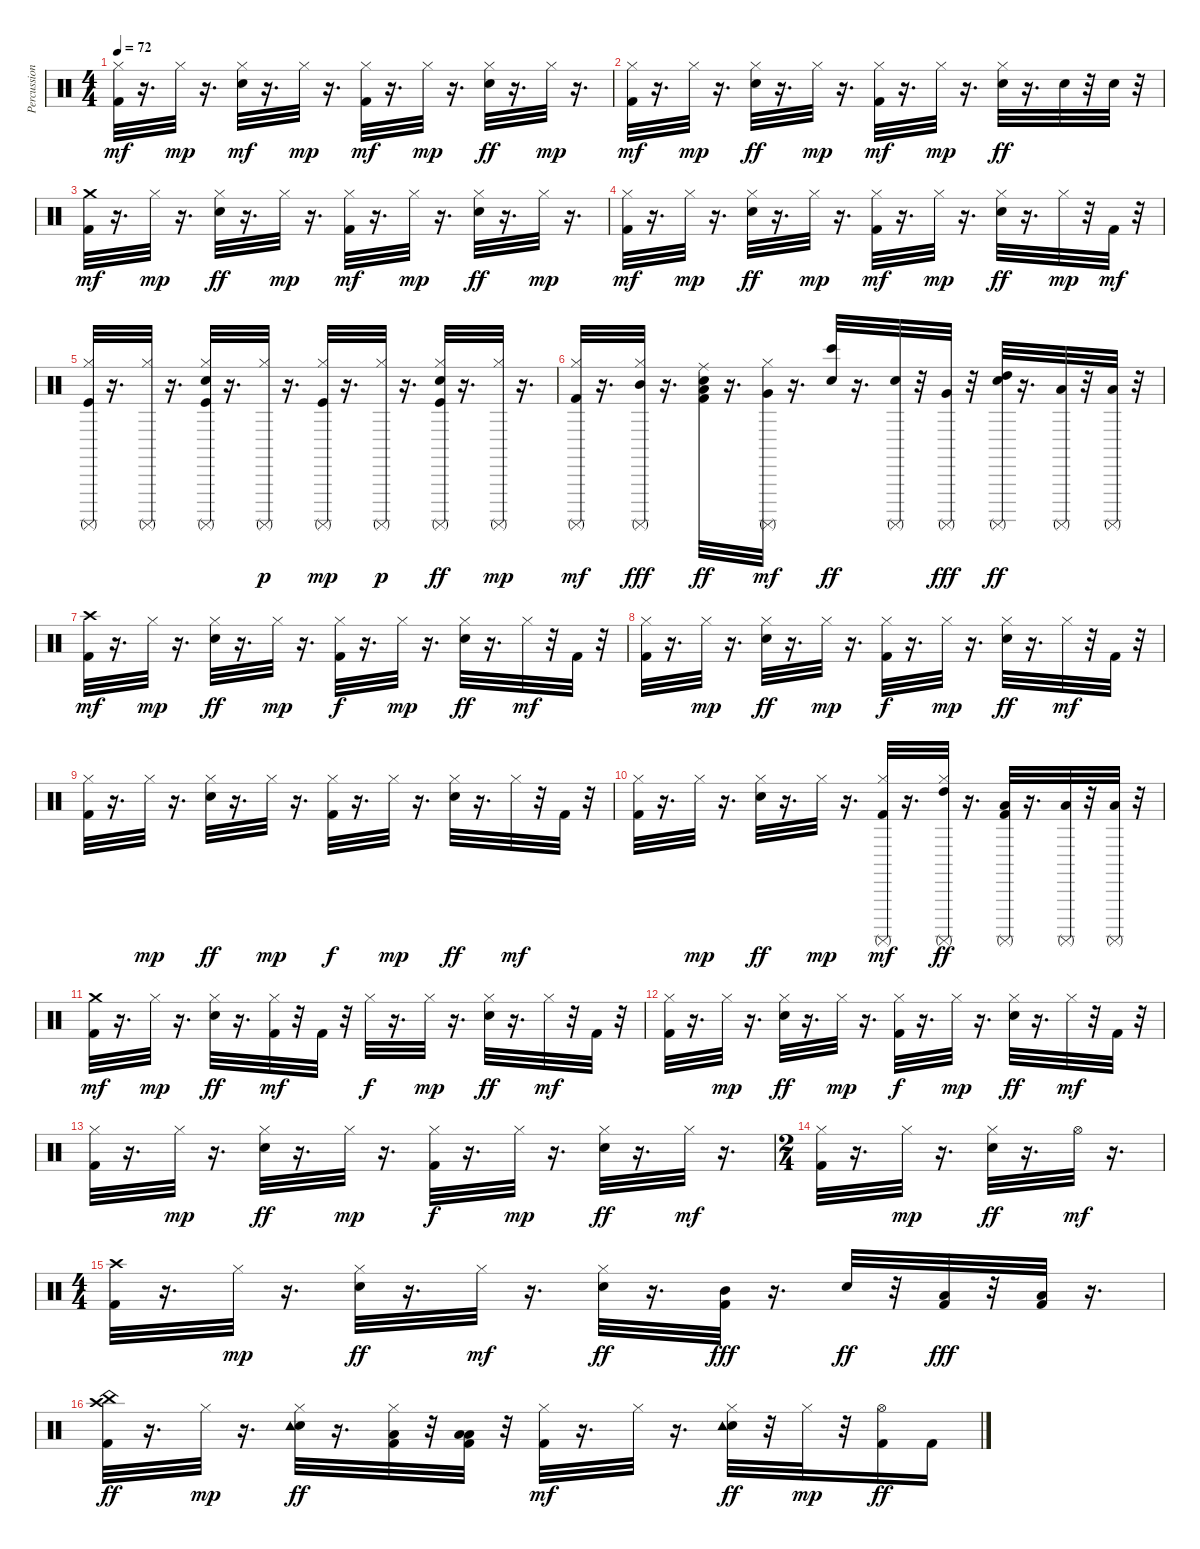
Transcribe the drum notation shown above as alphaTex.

\track ("Percussion" "Percussion") {instrument percussion}
\staff {score}
\articulation defaults
\ts (4 4)
\tempo 72
\clef neutral
\ks c
("Hi-Hat (closed)" "Kick (hit) 2").32{dy mf} r.16{d} "Hi-Hat (closed)".32{dy mp} r.16{d} ("Snare (hit) 2" "Hi-Hat (closed)").32{dy mf} r.16{d} "Hi-Hat (closed)".32{dy mp} r.16{d} ("Hi-Hat (closed)" "Kick (hit) 2").32{dy mf} r.16{d} "Hi-Hat (closed)".32{dy mp} r.16{d} ("Hi-Hat (closed)" "Snare (hit) 2").32{dy ff} r.16{d} "Hi-Hat (closed)".32{dy mp} r.16{d} |
("Kick (hit) 2" "Hi-Hat (closed)").32{dy mf} r.16{d} "Hi-Hat (closed)".32{dy mp} r.16{d} ("Hi-Hat (closed)" "Snare (hit) 2").32{dy ff} r.16{d} "Hi-Hat (closed)".32{dy mp} r.16{d} ("Hi-Hat (closed)" "Kick (hit) 2").32{dy mf} r.16{d} "Hi-Hat (closed)".32{dy mp} r.16{d} ("Hi-Hat (closed)" "Snare (hit) 2").32{dy ff} r.16{d} "Snare (hit) 2".32 r.32 "Snare (hit) 2".32 r.32 |
("Kick (hit) 2" "Crash medium (hit)").32{dy mf} r.16{d} "Hi-Hat (closed)".32{dy mp} r.16{d} ("Snare (hit) 2" "Hi-Hat (closed)").32{dy ff} r.16{d} "Hi-Hat (closed)".32{dy mp} r.16{d} ("Hi-Hat (closed)" "Kick (hit) 2").32{dy mf} r.16{d} "Hi-Hat (closed)".32{dy mp} r.16{d} ("Snare (hit) 2" "Hi-Hat (closed)").32{dy ff} r.16{d} "Hi-Hat (closed)".32{dy mp} r.16{d} |
("Kick (hit) 2" "Hi-Hat (closed)").32{dy mf} r.16{d} "Hi-Hat (closed)".32{dy mp} r.16{d} ("Snare (hit) 2" "Hi-Hat (closed)").32{dy ff} r.16{d} "Hi-Hat (closed)".32{dy mp} r.16{d} ("Hi-Hat (closed)" "Kick (hit) 2").32{dy mf} r.16{d} "Hi-Hat (closed)".32{dy mp} r.16{d} ("Snare (hit) 2" "Hi-Hat (closed)").32{dy ff} r.16{d} "Hi-Hat (closed)".32{dy mp} r.32 "Kick (hit) 2".32{dy mf} r.32 |
("Hi-Hat (closed)" "Kick (hit)" "Surdo (mute)").32 r.16{d} ("Hi-Hat (closed)" "Surdo (mute)").32 r.16{d} ("Hi-Hat (closed)" "Kick (hit)" "Snare (hit) 2" "Surdo (mute)").32 r.16{d} ("Hi-Hat (closed)" "Surdo (mute)").32{dy p} r.16{d} ("Hi-Hat (closed)" "Kick (hit)" "Surdo (mute)").32{dy mp} r.16{d} ("Hi-Hat (closed)" "Surdo (mute)").32{dy p} r.16{d} ("Hi-Hat (closed)" "Kick (hit)" "Snare (hit) 2" "Surdo (mute)").32{dy ff} r.16{d} ("Hi-Hat (closed)" "Surdo (mute)").32{dy mp} r.16{d} |
("Kick (hit) 2" "Hi-Hat (closed)" "Surdo (mute)").32{dy mf} r.16{d} ("Mid Tom (hit)" "Hi-Hat (closed)" "Surdo (mute)").32{dy fff} r.16{d} ("Low Tom (hit)" "Kick (hit) 2" "Snare (hit) 2" "Ride (middle)").32{dy ff} r.16{d} ("Very Low Tom (hit)" "Hi-Hat (closed)" "Surdo (mute)").32{dy mf} r.16{d} ("Snare (hit) 2" "Bongo High (hit)").32{dy ff} r.16{d} ("Snare (hit) 2" "Surdo (mute)").32 r.32 ("Very Low Tom (hit)" "Surdo (mute)").32{dy fff} r.32 ("High Tom (hit)" "Snare (hit) 2" "Surdo (mute)").32{dy ff} r.16{d} ("Low Tom (hit)" "Surdo (mute)").32 r.32 ("Low Floor Tom (hit)" "Surdo (mute)").32 r.32 |
("Kick (hit) 2" "Crash high (hit)").32{dy mf} r.16{d} "Hi-Hat (closed)".32{dy mp} r.16{d} ("Hi-Hat (closed)" "Snare (hit) 2").32{dy ff} r.16{d} "Hi-Hat (closed)".32{dy mp} r.16{d} ("Hi-Hat (closed)" "Kick (hit) 2").32{dy f} r.16{d} "Hi-Hat (closed)".32{dy mp} r.16{d} ("Snare (hit) 2" "Hi-Hat (closed)").32{dy ff} r.16{d} "Hi-Hat (closed)".32{dy mf} r.32 "Kick (hit) 2".32 r.32 |
("Kick (hit) 2" "Hi-Hat (closed)").32 r.16{d} "Hi-Hat (closed)".32{dy mp} r.16{d} ("Hi-Hat (closed)" "Snare (hit) 2").32{dy ff} r.16{d} "Hi-Hat (closed)".32{dy mp} r.16{d} ("Hi-Hat (closed)" "Kick (hit) 2").32{dy f} r.16{d} "Hi-Hat (closed)".32{dy mp} r.16{d} ("Snare (hit) 2" "Hi-Hat (closed)").32{dy ff} r.16{d} "Hi-Hat (closed)".32{dy mf} r.32 "Kick (hit) 2".32 r.32 |
("Kick (hit) 2" "Hi-Hat (closed)").32 r.16{d} "Hi-Hat (closed)".32{dy mp} r.16{d} ("Hi-Hat (closed)" "Snare (hit) 2").32{dy ff} r.16{d} "Hi-Hat (closed)".32{dy mp} r.16{d} ("Hi-Hat (closed)" "Kick (hit) 2").32{dy f} r.16{d} "Hi-Hat (closed)".32{dy mp} r.16{d} ("Snare (hit) 2" "Hi-Hat (closed)").32{dy ff} r.16{d} "Hi-Hat (closed)".32{dy mf} r.32 "Kick (hit) 2".32 r.32 |
("Kick (hit) 2" "Hi-Hat (closed)").32 r.16{d} "Hi-Hat (closed)".32{dy mp} r.16{d} ("Hi-Hat (closed)" "Snare (hit) 2").32{dy ff} r.16{d} "Hi-Hat (closed)".32{dy mp} r.16{d} ("Hi-Hat (closed)" "Kick (hit) 2" "Surdo (mute)").32{dy mf} r.16{d} ("Hi-Hat (closed)" "High Tom (hit)" "Surdo (mute)").32{dy ff} r.16{d} ("Low Tom (hit)" "Kick (hit) 2" "Surdo (mute)").32 r.16{d} ("Low Tom (hit)" "Surdo (mute)").32 r.32 ("Low Tom (hit)" "Surdo (mute)").32 r.32 |
("Kick (hit) 2" "Crash medium (hit)").32{dy mf} r.16{d} "Hi-Hat (closed)".32{dy mp} r.16{d} ("Hi-Hat (closed)" "Snare (hit) 2").32{dy ff} r.16{d} ("Hi-Hat (closed)" "Kick (hit) 2").32{dy mf} r.32 "Kick (hit) 2".32 r.32 "Hi-Hat (closed)".32{dy f} r.16{d} "Hi-Hat (closed)".32{dy mp} r.16{d} ("Snare (hit) 2" "Hi-Hat (closed)").32{dy ff} r.16{d} "Hi-Hat (closed)".32{dy mf} r.32 "Kick (hit) 2".32 r.32 |
("Kick (hit) 2" "Hi-Hat (closed)").32 r.16{d} "Hi-Hat (closed)".32{dy mp} r.16{d} ("Hi-Hat (closed)" "Snare (hit) 2").32{dy ff} r.16{d} "Hi-Hat (closed)".32{dy mp} r.16{d} ("Hi-Hat (closed)" "Kick (hit) 2").32{dy f} r.16{d} "Hi-Hat (closed)".32{dy mp} r.16{d} ("Snare (hit) 2" "Hi-Hat (closed)").32{dy ff} r.16{d} "Hi-Hat (closed)".32{dy mf} r.32 "Kick (hit) 2".32 r.32 |
("Kick (hit) 2" "Hi-Hat (closed)").32 r.16{d} "Hi-Hat (closed)".32{dy mp} r.16{d} ("Hi-Hat (closed)" "Snare (hit) 2").32{dy ff} r.16{d} "Hi-Hat (closed)".32{dy mp} r.16{d} ("Hi-Hat (closed)" "Kick (hit) 2").32{dy f} r.16{d} "Hi-Hat (closed)".32{dy mp} r.16{d} ("Snare (hit) 2" "Hi-Hat (closed)").32{dy ff} r.16{d} "Hi-Hat (closed)".32{dy mf} r.16{d} |
\ts (2 4)
("Hi-Hat (closed)" "Kick (hit) 2").32 r.16{d} "Hi-Hat (closed)".32{dy mp} r.16{d} ("Hi-Hat (closed)" "Snare (hit) 2").32{dy ff} r.16{d} "Hi-Hat (open)".32{dy mf} r.16{d} |
\ts (4 4)
("Crash high (hit)" "Kick (hit) 2").32 r.16{d} "Hi-Hat (closed)".32{dy mp} r.16{d} ("Hi-Hat (closed)" "Snare (hit) 2").32{dy ff} r.16{d} "Hi-Hat (closed)".32{dy mf} r.16{d} ("Hi-Hat (closed)" "Snare (hit) 2").32{dy ff} r.16{d} ("Mid Tom (hit)" "Kick (hit) 2").32{dy fff} r.16{d} "Snare (hit) 2".32{dy ff} r.32 ("Low Tom (hit)" "Kick (hit) 2").32{dy fff} r.32 ("Low Floor Tom (hit)" "Kick (hit) 2").32 r.16{d} |
("China (hit)" "Kick (hit) 2" "Crash high (hit)").32{dy ff} r.16{d} "Hi-Hat (closed)".32{dy mp} r.16{d} ("Hi-Hat (closed)" "Snare (hit) 2" "Tambourine (hit)").32{dy ff} r.16{d} ("Hi-Hat (closed)" "Kick (hit) 2" "Low Floor Tom (hit)").32 r.32 ("Low Floor Tom (hit)" "Kick (hit) 2" "Low Floor Tom (hit)").32 r.32 ("Hi-Hat (closed)" "Kick (hit) 2").32{dy mf} r.16{d} "Hi-Hat (closed)".32 r.16{d} ("Snare (hit) 2" "Hi-Hat (closed)" "Tambourine (hit)").32{dy ff} r.32 "Hi-Hat (closed)".32{dy mp} r.32 ("Hi-Hat (open)" "Kick (hit) 2").16{dy ff} "Kick (hit) 2".16
